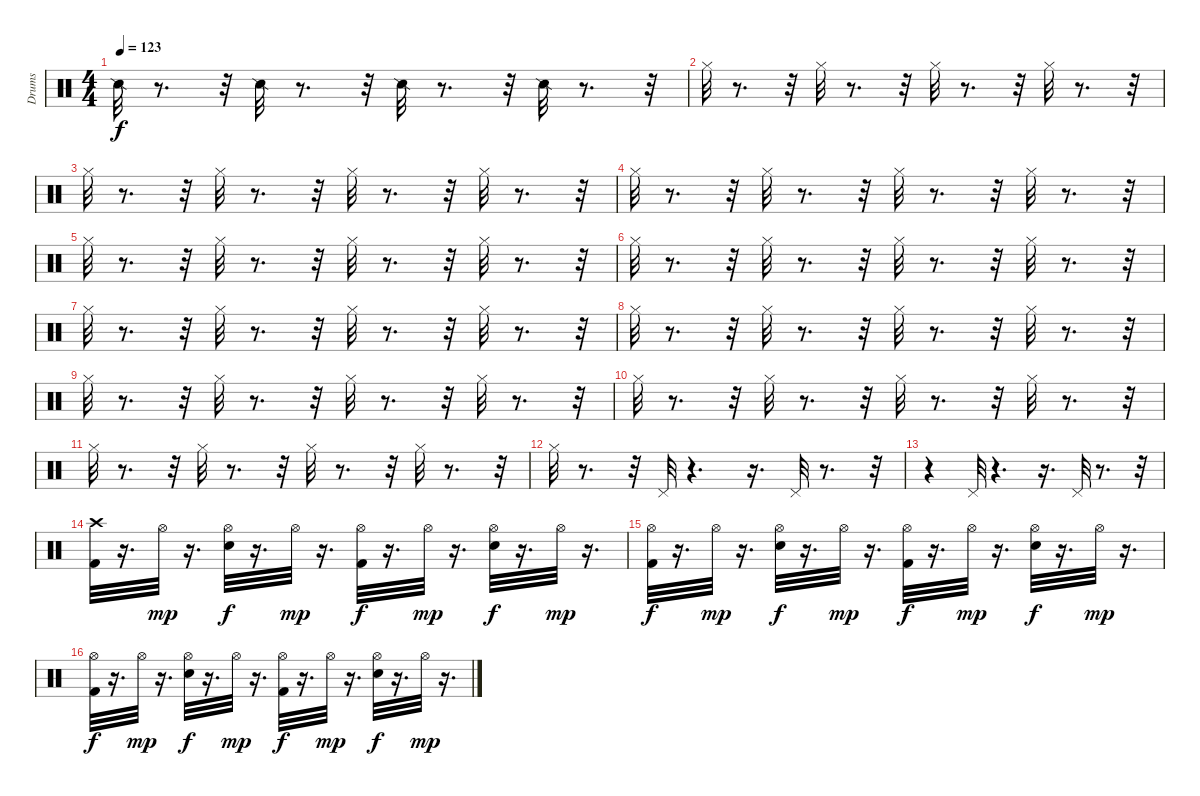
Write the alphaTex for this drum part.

\track ("Drums" "Drums") {instrument percussion}
\staff {score}
\articulation defaults
\ts (4 4)
\tempo 123
\clef neutral
\ks c "Snare (side stick) 2".32{dy f}
r.8{d} r.32 "Snare (side stick) 2".32 r.8{d} r.32 "Snare (side stick) 2".32 r.8{d} r.32 "Snare (side stick) 2".32 r.8{d} r.32 |
"Hi-Hat (closed)".32 r.8{d} r.32 "Hi-Hat (closed)".32 r.8{d} r.32 "Hi-Hat (closed)".32 r.8{d} r.32 "Hi-Hat (closed)".32 r.8{d} r.32 |
"Hi-Hat (closed)".32 r.8{d} r.32 "Hi-Hat (closed)".32 r.8{d} r.32 "Hi-Hat (closed)".32 r.8{d} r.32 "Hi-Hat (closed)".32 r.8{d} r.32 |
"Hi-Hat (closed)".32 r.8{d} r.32 "Hi-Hat (closed)".32 r.8{d} r.32 "Hi-Hat (closed)".32 r.8{d} r.32 "Hi-Hat (closed)".32 r.8{d} r.32 |
"Hi-Hat (closed)".32 r.8{d} r.32 "Hi-Hat (closed)".32 r.8{d} r.32 "Hi-Hat (closed)".32 r.8{d} r.32 "Hi-Hat (closed)".32 r.8{d} r.32 |
"Hi-Hat (closed)".32 r.8{d} r.32 "Hi-Hat (closed)".32 r.8{d} r.32 "Hi-Hat (closed)".32 r.8{d} r.32 "Hi-Hat (closed)".32 r.8{d} r.32 |
"Hi-Hat (closed)".32 r.8{d} r.32 "Hi-Hat (closed)".32 r.8{d} r.32 "Hi-Hat (closed)".32 r.8{d} r.32 "Hi-Hat (closed)".32 r.8{d} r.32 |
"Hi-Hat (closed)".32 r.8{d} r.32 "Hi-Hat (closed)".32 r.8{d} r.32 "Hi-Hat (closed)".32 r.8{d} r.32 "Hi-Hat (closed)".32 r.8{d} r.32 |
"Hi-Hat (closed)".32 r.8{d} r.32 "Hi-Hat (closed)".32 r.8{d} r.32 "Hi-Hat (closed)".32 r.8{d} r.32 "Hi-Hat (closed)".32 r.8{d} r.32 |
"Hi-Hat (closed)".32 r.8{d} r.32 "Hi-Hat (closed)".32 r.8{d} r.32 "Hi-Hat (closed)".32 r.8{d} r.32 "Hi-Hat (closed)".32 r.8{d} r.32 |
"Hi-Hat (closed)".32 r.8{d} r.32 "Hi-Hat (closed)".32 r.8{d} r.32 "Hi-Hat (closed)".32 r.8{d} r.32 "Hi-Hat (closed)".32 r.8{d} r.32 |
"Hi-Hat (closed)".32 r.8{d} r.32 "Pedal Hi-Hat (hit)".32 r.4{d} r.16{d} "Pedal Hi-Hat (hit)".32 r.8{d} r.32 |
r.4 "Pedal Hi-Hat (hit)".32 r.4{d} r.16{d} "Pedal Hi-Hat (hit)".32 r.8{d} r.32 |
("Crash high (hit)" "Kick (hit) 2").32 r.16{d} "Hi-Hat (open)".32{dy mp} r.16{d} ("Hi-Hat (open)" "Electric Snare (hit)").32{dy f} r.16{d} "Hi-Hat (open)".32{dy mp} r.16{d} ("Kick (hit) 2" "Hi-Hat (open)").32{dy f} r.16{d} "Hi-Hat (open)".32{dy mp} r.16{d} ("Hi-Hat (open)" "Electric Snare (hit)").32{dy f} r.16{d} "Hi-Hat (open)".32{dy mp} r.16{d} |
("Hi-Hat (open)" "Kick (hit) 2").32{dy f} r.16{d} "Hi-Hat (open)".32{dy mp} r.16{d} ("Hi-Hat (open)" "Electric Snare (hit)").32{dy f} r.16{d} "Hi-Hat (open)".32{dy mp} r.16{d} ("Hi-Hat (open)" "Kick (hit) 2").32{dy f} r.16{d} "Hi-Hat (open)".32{dy mp} r.16{d} ("Hi-Hat (open)" "Electric Snare (hit)").32{dy f} r.16{d} "Hi-Hat (open)".32{dy mp} r.16{d} |
("Hi-Hat (open)" "Kick (hit) 2").32{dy f} r.16{d} "Hi-Hat (open)".32{dy mp} r.16{d} ("Hi-Hat (open)" "Electric Snare (hit)").32{dy f} r.16{d} "Hi-Hat (open)".32{dy mp} r.16{d} ("Hi-Hat (open)" "Kick (hit) 2").32{dy f} r.16{d} "Hi-Hat (open)".32{dy mp} r.16{d} ("Hi-Hat (open)" "Electric Snare (hit)").32{dy f} r.16{d} "Hi-Hat (open)".32{dy mp} r.16{d}
